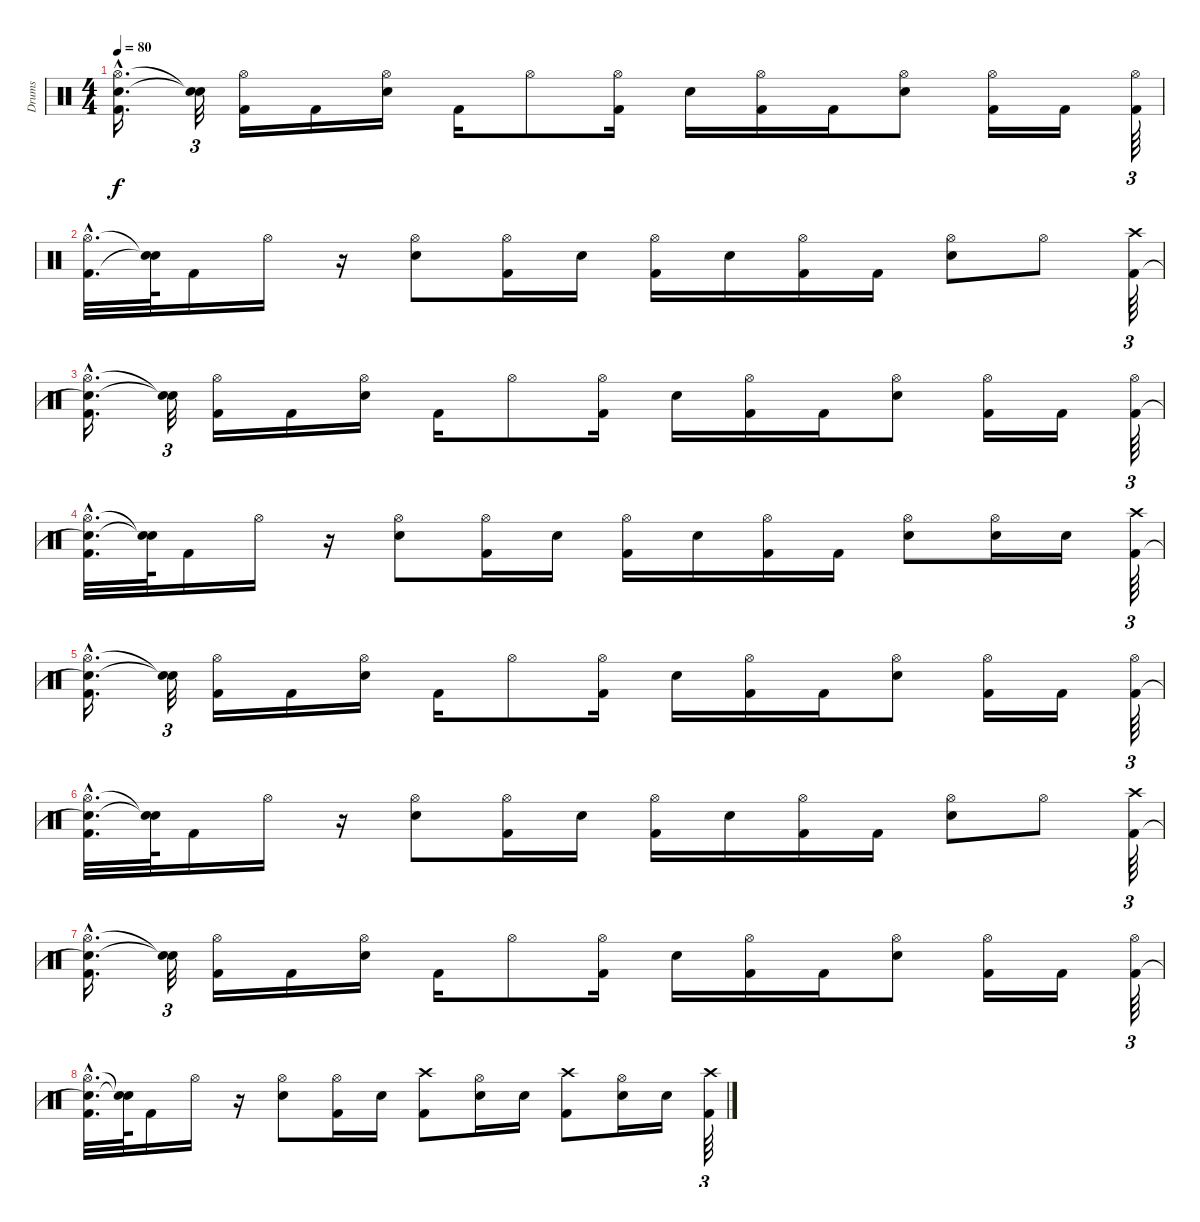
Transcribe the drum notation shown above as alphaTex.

\track ("Drums" "Drums") {instrument percussion}
\staff {score}
\articulation defaults
\ts (4 4)
\tempo 80
\clef neutral
\ks c
("Hi-Hat (open)"{hac} "Snare (hit)"{hac t} "Kick (hit) 2"{hac}).16{d dy f} ("Snare (hit)"{t} "Snare (hit)"{t}).32{tu (3 2)} ("Hi-Hat (open)" "Kick (hit) 2").16 "Kick (hit) 2".16 ("Hi-Hat (open)" "Electric Snare (hit)").16 "Kick (hit) 2".16 "Hi-Hat (open)".8 ("Hi-Hat (open)" "Kick (hit) 2").16 "Electric Snare (hit)".16 ("Hi-Hat (open)" "Kick (hit) 2").16 "Kick (hit) 2".16 ("Hi-Hat (open)" "Electric Snare (hit)").8 ("Hi-Hat (open)" "Kick (hit) 2").16 "Kick (hit) 2".16 ("Hi-Hat (open)" "Kick (hit) 2").64{tu (3 2)} |
("Hi-Hat (open)"{hac} "Kick (hit) 2"{hac}).32{d} ("Snare (hit)"{t} "Snare (hit)"{t}).64 "Kick (hit) 2".16 "Hi-Hat (open)".16 r.16 ("Hi-Hat (open)" "Electric Snare (hit)").8 ("Hi-Hat (open)" "Kick (hit) 2").16 "Electric Snare (hit)".16 ("Hi-Hat (open)" "Kick (hit) 2").16 "Electric Snare (hit)".16 ("Hi-Hat (open)" "Kick (hit) 2").16 "Kick (hit) 2".16 ("Hi-Hat (open)" "Electric Snare (hit)").8 "Hi-Hat (open)".8 ("Crash high (hit)" "Kick (hit) 2").64{tu (3 2)} |
("Hi-Hat (open)"{hac} "Snare (hit)"{hac t} "Kick (hit) 2"{hac}).16{d} ("Snare (hit)"{t} "Snare (hit)"{t}).32{tu (3 2)} ("Hi-Hat (open)" "Kick (hit) 2").16 "Kick (hit) 2".16 ("Hi-Hat (open)" "Electric Snare (hit)").16 "Kick (hit) 2".16 "Hi-Hat (open)".8 ("Hi-Hat (open)" "Kick (hit) 2").16 "Electric Snare (hit)".16 ("Hi-Hat (open)" "Kick (hit) 2").16 "Kick (hit) 2".16 ("Hi-Hat (open)" "Electric Snare (hit)").8 ("Hi-Hat (open)" "Kick (hit) 2").16 "Kick (hit) 2".16 ("Hi-Hat (open)" "Kick (hit) 2").64{tu (3 2)} |
("Hi-Hat (open)"{hac} "Snare (hit)"{hac t} "Kick (hit) 2"{hac}).32{d} ("Snare (hit)"{t} "Snare (hit)"{t}).64 "Kick (hit) 2".16 "Hi-Hat (open)".16 r.16 ("Hi-Hat (open)" "Electric Snare (hit)").8 ("Hi-Hat (open)" "Kick (hit) 2").16 "Electric Snare (hit)".16 ("Hi-Hat (open)" "Kick (hit) 2").16 "Electric Snare (hit)".16 ("Hi-Hat (open)" "Kick (hit) 2").16 "Kick (hit) 2".16 ("Hi-Hat (open)" "Electric Snare (hit)").8 ("Hi-Hat (open)" "Electric Snare (hit)").16 "Electric Snare (hit)".16 ("Crash high (hit)" "Kick (hit) 2").64{tu (3 2)} |
("Hi-Hat (open)"{hac} "Snare (hit)"{hac t} "Kick (hit) 2"{hac}).16{d} ("Snare (hit)"{t} "Snare (hit)"{t}).32{tu (3 2)} ("Hi-Hat (open)" "Kick (hit) 2").16 "Kick (hit) 2".16 ("Hi-Hat (open)" "Electric Snare (hit)").16 "Kick (hit) 2".16 "Hi-Hat (open)".8 ("Hi-Hat (open)" "Kick (hit) 2").16 "Electric Snare (hit)".16 ("Hi-Hat (open)" "Kick (hit) 2").16 "Kick (hit) 2".16 ("Hi-Hat (open)" "Electric Snare (hit)").8 ("Hi-Hat (open)" "Kick (hit) 2").16 "Kick (hit) 2".16 ("Hi-Hat (open)" "Kick (hit) 2").64{tu (3 2)} |
("Hi-Hat (open)"{hac} "Snare (hit)"{hac t} "Kick (hit) 2"{hac}).32{d} ("Snare (hit)"{t} "Snare (hit)"{t}).64 "Kick (hit) 2".16 "Hi-Hat (open)".16 r.16 ("Hi-Hat (open)" "Electric Snare (hit)").8 ("Hi-Hat (open)" "Kick (hit) 2").16 "Electric Snare (hit)".16 ("Hi-Hat (open)" "Kick (hit) 2").16 "Electric Snare (hit)".16 ("Hi-Hat (open)" "Kick (hit) 2").16 "Kick (hit) 2".16 ("Hi-Hat (open)" "Electric Snare (hit)").8 "Hi-Hat (open)".8 ("Crash high (hit)" "Kick (hit) 2").64{tu (3 2)} |
("Hi-Hat (open)"{hac} "Snare (hit)"{hac t} "Kick (hit) 2"{hac}).16{d} ("Snare (hit)"{t} "Snare (hit)"{t}).32{tu (3 2)} ("Hi-Hat (open)" "Kick (hit) 2").16 "Kick (hit) 2".16 ("Hi-Hat (open)" "Electric Snare (hit)").16 "Kick (hit) 2".16 "Hi-Hat (open)".8 ("Hi-Hat (open)" "Kick (hit) 2").16 "Electric Snare (hit)".16 ("Hi-Hat (open)" "Kick (hit) 2").16 "Kick (hit) 2".16 ("Hi-Hat (open)" "Electric Snare (hit)").8 ("Hi-Hat (open)" "Kick (hit) 2").16 "Kick (hit) 2".16 ("Hi-Hat (open)" "Kick (hit) 2").64{tu (3 2)} |
("Hi-Hat (open)"{hac} "Snare (hit)"{hac t} "Kick (hit) 2"{hac}).32{d} ("Snare (hit)"{t} "Snare (hit)"{t}).64 "Kick (hit) 2".16 "Hi-Hat (open)".16 r.16 ("Hi-Hat (open)" "Electric Snare (hit)").8 ("Hi-Hat (open)" "Kick (hit) 2").16 "Electric Snare (hit)".16 ("Crash high (hit)" "Kick (hit) 2").8 ("Hi-Hat (open)" "Electric Snare (hit)").16 "Electric Snare (hit)".16 ("Crash high (hit)" "Kick (hit) 2").8 ("Hi-Hat (open)" "Electric Snare (hit)").16 "Electric Snare (hit)".16 ("Crash high (hit)" "Kick (hit) 2").64{tu (3 2)}
